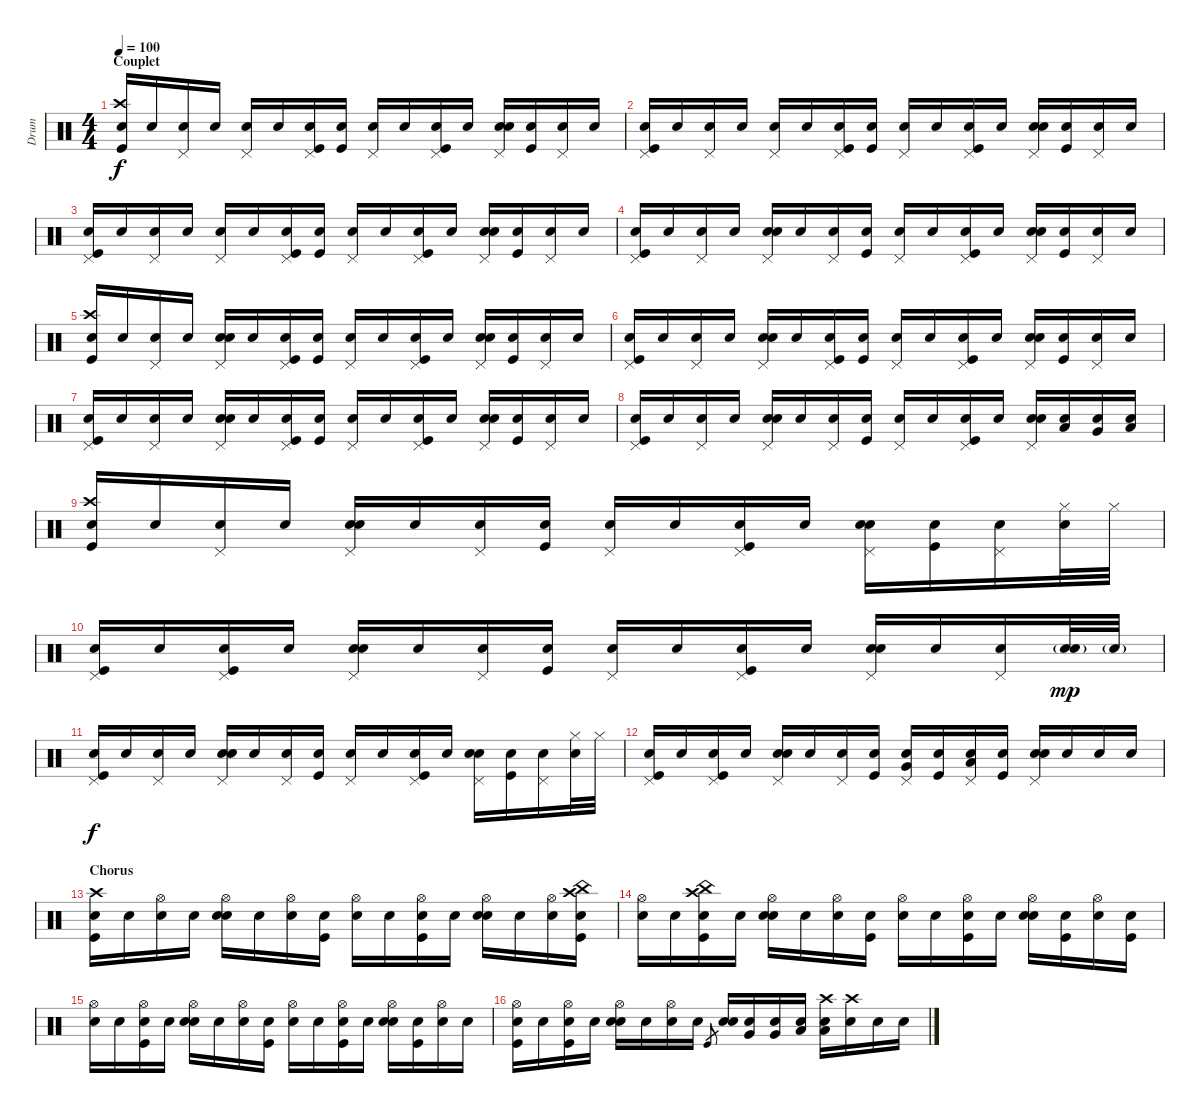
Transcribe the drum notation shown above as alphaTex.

\track ("Drum" "Drum") {instrument percussion}
\staff {score}
\articulation defaults
\ts (4 4)
\section ("" "Couplet")
\tempo 100
\clef neutral
\ks c
("Kick (hit)" "Crash high (hit)" "Snare (hit)"{x}).16{dy f} "Snare (hit)"{x}.16 ("Pedal Hi-Hat (hit)" "Snare (hit)"{x}).16 "Snare (hit)"{x}.16 ("Pedal Hi-Hat (hit)" "Snare (hit)"{x}).16 "Snare (hit)"{x}.16 ("Kick (hit)" "Pedal Hi-Hat (hit)" "Snare (hit)"{x}).16 ("Kick (hit)" "Snare (hit)"{x}).16 ("Pedal Hi-Hat (hit)" "Snare (hit)"{x}).16 "Snare (hit)"{x}.16 ("Kick (hit)" "Pedal Hi-Hat (hit)" "Snare (hit)"{x}).16 "Snare (hit)"{x}.16 ("Snare (hit) 2" "Pedal Hi-Hat (hit)" "Snare (hit)"{x}).16 ("Kick (hit)" "Snare (hit)"{x}).16 ("Pedal Hi-Hat (hit)" "Snare (hit)"{x}).16 "Snare (hit)"{x}.16 |
("Kick (hit)" "Pedal Hi-Hat (hit)" "Snare (hit)"{x}).16 "Snare (hit)"{x}.16 ("Pedal Hi-Hat (hit)" "Snare (hit)"{x}).16 "Snare (hit)"{x}.16 ("Pedal Hi-Hat (hit)" "Snare (hit)"{x}).16 "Snare (hit)"{x}.16 ("Kick (hit)" "Pedal Hi-Hat (hit)" "Snare (hit)"{x}).16 ("Kick (hit)" "Snare (hit)"{x}).16 ("Pedal Hi-Hat (hit)" "Snare (hit)"{x}).16 "Snare (hit)"{x}.16 ("Kick (hit)" "Pedal Hi-Hat (hit)" "Snare (hit)"{x}).16 "Snare (hit)"{x}.16 ("Snare (hit) 2" "Pedal Hi-Hat (hit)" "Snare (hit)"{x}).16 ("Kick (hit)" "Snare (hit)"{x}).16 ("Pedal Hi-Hat (hit)" "Snare (hit)"{x}).16 "Snare (hit)"{x}.16 |
("Kick (hit)" "Pedal Hi-Hat (hit)" "Snare (hit)"{x}).16 "Snare (hit)"{x}.16 ("Pedal Hi-Hat (hit)" "Snare (hit)"{x}).16 "Snare (hit)"{x}.16 ("Pedal Hi-Hat (hit)" "Snare (hit)"{x}).16 "Snare (hit)"{x}.16 ("Kick (hit)" "Pedal Hi-Hat (hit)" "Snare (hit)"{x}).16 ("Kick (hit)" "Snare (hit)"{x}).16 ("Pedal Hi-Hat (hit)" "Snare (hit)"{x}).16 "Snare (hit)"{x}.16 ("Kick (hit)" "Pedal Hi-Hat (hit)" "Snare (hit)"{x}).16 "Snare (hit)"{x}.16 ("Snare (hit) 2" "Pedal Hi-Hat (hit)" "Snare (hit)"{x}).16 ("Kick (hit)" "Snare (hit)"{x}).16 ("Pedal Hi-Hat (hit)" "Snare (hit)"{x}).16 "Snare (hit)"{x}.16 |
("Kick (hit)" "Pedal Hi-Hat (hit)" "Snare (hit)"{x}).16 "Snare (hit)"{x}.16 ("Pedal Hi-Hat (hit)" "Snare (hit)"{x}).16 "Snare (hit)"{x}.16 ("Snare (hit) 2" "Pedal Hi-Hat (hit)" "Snare (hit)"{x}).16 "Snare (hit)"{x}.16 ("Pedal Hi-Hat (hit)" "Snare (hit)"{x}).16 ("Kick (hit)" "Snare (hit)"{x}).16 ("Pedal Hi-Hat (hit)" "Snare (hit)"{x}).16 "Snare (hit)"{x}.16 ("Kick (hit)" "Pedal Hi-Hat (hit)" "Snare (hit)"{x}).16 "Snare (hit)"{x}.16 ("Snare (hit) 2" "Pedal Hi-Hat (hit)" "Snare (hit)"{x}).16 ("Kick (hit)" "Snare (hit)"{x}).16 ("Pedal Hi-Hat (hit)" "Snare (hit)"{x}).16 "Snare (hit)"{x}.16 |
("Kick (hit)" "Crash high (hit)" "Snare (hit)"{x}).16 "Snare (hit)"{x}.16 ("Pedal Hi-Hat (hit)" "Snare (hit)"{x}).16 "Snare (hit)"{x}.16 ("Snare (hit) 2" "Pedal Hi-Hat (hit)" "Snare (hit)"{x}).16 "Snare (hit)"{x}.16 ("Kick (hit)" "Pedal Hi-Hat (hit)" "Snare (hit)"{x}).16 ("Kick (hit)" "Snare (hit)"{x}).16 ("Pedal Hi-Hat (hit)" "Snare (hit)"{x}).16 "Snare (hit)"{x}.16 ("Kick (hit)" "Pedal Hi-Hat (hit)" "Snare (hit)"{x}).16 "Snare (hit)"{x}.16 ("Snare (hit) 2" "Pedal Hi-Hat (hit)" "Snare (hit)"{x}).16 ("Kick (hit)" "Snare (hit)"{x}).16 ("Pedal Hi-Hat (hit)" "Snare (hit)"{x}).16 "Snare (hit)"{x}.16 |
("Kick (hit)" "Pedal Hi-Hat (hit)" "Snare (hit)"{x}).16 "Snare (hit)"{x}.16 ("Pedal Hi-Hat (hit)" "Snare (hit)"{x}).16 "Snare (hit)"{x}.16 ("Snare (hit) 2" "Pedal Hi-Hat (hit)" "Snare (hit)"{x}).16 "Snare (hit)"{x}.16 ("Kick (hit)" "Pedal Hi-Hat (hit)" "Snare (hit)"{x}).16 ("Kick (hit)" "Snare (hit)"{x}).16 ("Pedal Hi-Hat (hit)" "Snare (hit)"{x}).16 "Snare (hit)"{x}.16 ("Kick (hit)" "Pedal Hi-Hat (hit)" "Snare (hit)"{x}).16 "Snare (hit)"{x}.16 ("Snare (hit) 2" "Pedal Hi-Hat (hit)" "Snare (hit)"{x}).16 ("Kick (hit)" "Snare (hit)"{x}).16 ("Pedal Hi-Hat (hit)" "Snare (hit)"{x}).16 "Snare (hit)"{x}.16 |
("Kick (hit)" "Pedal Hi-Hat (hit)" "Snare (hit)"{x}).16 "Snare (hit)"{x}.16 ("Pedal Hi-Hat (hit)" "Snare (hit)"{x}).16 "Snare (hit)"{x}.16 ("Snare (hit) 2" "Pedal Hi-Hat (hit)" "Snare (hit)"{x}).16 "Snare (hit)"{x}.16 ("Kick (hit)" "Pedal Hi-Hat (hit)" "Snare (hit)"{x}).16 ("Kick (hit)" "Snare (hit)"{x}).16 ("Pedal Hi-Hat (hit)" "Snare (hit)"{x}).16 "Snare (hit)"{x}.16 ("Kick (hit)" "Pedal Hi-Hat (hit)" "Snare (hit)"{x}).16 "Snare (hit)"{x}.16 ("Snare (hit) 2" "Pedal Hi-Hat (hit)" "Snare (hit)"{x}).16 ("Kick (hit)" "Snare (hit)"{x}).16 ("Pedal Hi-Hat (hit)" "Snare (hit)"{x}).16 "Snare (hit)"{x}.16 |
("Kick (hit)" "Pedal Hi-Hat (hit)" "Snare (hit)"{x}).16 "Snare (hit)"{x}.16 ("Pedal Hi-Hat (hit)" "Snare (hit)"{x}).16 "Snare (hit)"{x}.16 ("Snare (hit) 2" "Pedal Hi-Hat (hit)" "Snare (hit)"{x}).16 "Snare (hit)"{x}.16 ("Pedal Hi-Hat (hit)" "Snare (hit)"{x}).16 ("Kick (hit)" "Snare (hit)"{x}).16 ("Pedal Hi-Hat (hit)" "Snare (hit)"{x}).16 "Snare (hit)"{x}.16 ("Kick (hit)" "Pedal Hi-Hat (hit)" "Snare (hit)"{x}).16 "Snare (hit)"{x}.16 ("Snare (hit) 2" "Pedal Hi-Hat (hit)" "Snare (hit)"{x}).16 ("Low Tom (hit)" "Snare (hit)"{x}).16 ("Very Low Tom (hit)" "Snare (hit)"{x}).16 ("Low Floor Tom (hit)" "Snare (hit)"{x}).16 |
("Kick (hit)" "Crash high (hit)" "Snare (hit)"{x}).16 "Snare (hit)"{x}.16 ("Pedal Hi-Hat (hit)" "Snare (hit)"{x}).16 "Snare (hit)"{x}.16 ("Snare (hit) 2" "Pedal Hi-Hat (hit)" "Snare (hit)"{x}).16 "Snare (hit)"{x}.16 ("Pedal Hi-Hat (hit)" "Snare (hit)"{x}).16 ("Kick (hit)" "Snare (hit)"{x}).16 ("Pedal Hi-Hat (hit)" "Snare (hit)"{x}).16 "Snare (hit)"{x}.16 ("Kick (hit)" "Pedal Hi-Hat (hit)" "Snare (hit)"{x}).16 "Snare (hit)"{x}.16 ("Snare (hit) 2" "Pedal Hi-Hat (hit)" "Snare (hit)"{x}).16 ("Kick (hit)" "Snare (hit)"{x}).16 ("Pedal Hi-Hat (hit)" "Snare (hit)"{x}).16 ("Hi-Hat (closed)" "Snare (hit)"{x}).32 "Hi-Hat (closed)".32 |
("Kick (hit)" "Pedal Hi-Hat (hit)" "Snare (hit)"{x}).16 "Snare (hit)"{x}.16 ("Kick (hit)" "Pedal Hi-Hat (hit)" "Snare (hit)"{x}).16 "Snare (hit)"{x}.16 ("Snare (hit) 2" "Pedal Hi-Hat (hit)" "Snare (hit)"{x}).16 "Snare (hit)"{x}.16 ("Pedal Hi-Hat (hit)" "Snare (hit)"{x}).16 ("Kick (hit)" "Snare (hit)"{x}).16 ("Pedal Hi-Hat (hit)" "Snare (hit)"{x}).16 "Snare (hit)"{x}.16 ("Kick (hit)" "Pedal Hi-Hat (hit)" "Snare (hit)"{x}).16 "Snare (hit)"{x}.16 ("Snare (hit) 2" "Pedal Hi-Hat (hit)" "Snare (hit)"{x}).16 "Snare (hit)"{x}.16 ("Pedal Hi-Hat (hit)" "Snare (hit)"{x}).16 ("Electric Snare (hit)"{g} "Snare (hit)"{x}).32{dy mp} "Electric Snare (hit)"{g}.32 |
("Kick (hit)" "Pedal Hi-Hat (hit)" "Snare (hit)"{x}).16{dy f} "Snare (hit)"{x}.16 ("Pedal Hi-Hat (hit)" "Snare (hit)"{x}).16 "Snare (hit)"{x}.16 ("Snare (hit) 2" "Pedal Hi-Hat (hit)" "Snare (hit)"{x}).16 "Snare (hit)"{x}.16 ("Pedal Hi-Hat (hit)" "Snare (hit)"{x}).16 ("Kick (hit)" "Snare (hit)"{x}).16 ("Pedal Hi-Hat (hit)" "Snare (hit)"{x}).16 "Snare (hit)"{x}.16 ("Kick (hit)" "Pedal Hi-Hat (hit)" "Snare (hit)"{x}).16 "Snare (hit)"{x}.16 ("Snare (hit) 2" "Pedal Hi-Hat (hit)" "Snare (hit)"{x}).16 ("Kick (hit)" "Snare (hit)"{x}).16 ("Pedal Hi-Hat (hit)" "Snare (hit)"{x}).16 ("Hi-Hat (closed)" "Snare (hit)"{x}).32 "Hi-Hat (closed)".32 |
("Kick (hit)" "Pedal Hi-Hat (hit)" "Snare (hit)"{x}).16 "Snare (hit)"{x}.16 ("Kick (hit)" "Pedal Hi-Hat (hit)" "Snare (hit)"{x}).16 "Snare (hit)"{x}.16 ("Snare (hit) 2" "Pedal Hi-Hat (hit)" "Snare (hit)"{x}).16 "Snare (hit)"{x}.16 ("Pedal Hi-Hat (hit)" "Snare (hit)"{x}).16 ("Kick (hit)" "Snare (hit)"{x}).16 ("Very Low Tom (hit)" "Pedal Hi-Hat (hit)" "Snare (hit)"{x}).16 ("Kick (hit)" "Snare (hit)"{x}).16 ("Low Floor Tom (hit)" "Pedal Hi-Hat (hit)" "Snare (hit)"{x}).16 ("Kick (hit)" "Snare (hit)"{x}).16 ("Snare (hit) 2" "Pedal Hi-Hat (hit)" "Snare (hit)"{x}).16 "Snare (hit)"{x}.16 "Snare (hit)"{x}.16 "Snare (hit)"{x}.16 |
\section ("" "Chorus")
("Kick (hit)" "Crash high (hit)" "Snare (hit)"{x}).16 "Snare (hit)"{x}.16 ("Hi-Hat (open)" "Snare (hit)"{x}).16 "Snare (hit)"{x}.16 ("Snare (hit) 2" "Hi-Hat (open)" "Snare (hit)"{x}).16 "Snare (hit)"{x}.16 ("Hi-Hat (open)" "Snare (hit)"{x}).16 ("Kick (hit)" "Snare (hit)"{x}).16 ("Hi-Hat (open)" "Snare (hit)"{x}).16 "Snare (hit)"{x}.16 ("Kick (hit)" "Hi-Hat (open)" "Snare (hit)"{x}).16 "Snare (hit)"{x}.16 ("Snare (hit) 2" "Hi-Hat (open)" "Snare (hit)"{x}).16 "Snare (hit)"{x}.16 ("Hi-Hat (open)" "Snare (hit)"{x}).16 ("Crash high (hit)" "Kick (hit)" "China (hit)" "Snare (hit)"{x}).16 |
("Hi-Hat (open)" "Snare (hit)"{x}).16 "Snare (hit)"{x}.16 ("Crash high (hit)" "Kick (hit)" "China (hit)" "Snare (hit)"{x}).16 "Snare (hit)"{x}.16 ("Snare (hit) 2" "Hi-Hat (open)" "Snare (hit)"{x}).16 "Snare (hit)"{x}.16 ("Hi-Hat (open)" "Snare (hit)"{x}).16 ("Kick (hit)" "Snare (hit)"{x}).16 ("Hi-Hat (open)" "Snare (hit)"{x}).16 "Snare (hit)"{x}.16 ("Kick (hit)" "Hi-Hat (open)" "Snare (hit)"{x}).16 "Snare (hit)"{x}.16 ("Snare (hit) 2" "Hi-Hat (open)" "Snare (hit)"{x}).16 ("Kick (hit)" "Snare (hit)"{x}).16 ("Hi-Hat (open)" "Snare (hit)"{x}).16 ("Kick (hit)" "Snare (hit)"{x}).16 |
("Hi-Hat (open)" "Snare (hit)"{x}).16 "Snare (hit)"{x}.16 ("Kick (hit)" "Hi-Hat (open)" "Snare (hit)"{x}).16 "Snare (hit)"{x}.16 ("Snare (hit) 2" "Hi-Hat (open)" "Snare (hit)"{x}).16 "Snare (hit)"{x}.16 ("Hi-Hat (open)" "Snare (hit)"{x}).16 ("Kick (hit)" "Snare (hit)"{x}).16 ("Hi-Hat (open)" "Snare (hit)"{x}).16 "Snare (hit)"{x}.16 ("Kick (hit)" "Hi-Hat (open)" "Snare (hit)"{x}).16 "Snare (hit)"{x}.16 ("Snare (hit) 2" "Hi-Hat (open)" "Snare (hit)"{x}).16 ("Kick (hit)" "Snare (hit)"{x}).16 ("Hi-Hat (open)" "Snare (hit)"{x}).16 "Snare (hit)"{x}.16 |
("Kick (hit)" "Hi-Hat (open)" "Snare (hit)"{x}).16 "Snare (hit)"{x}.16 ("Kick (hit)" "Hi-Hat (open)" "Snare (hit)"{x}).16 "Snare (hit)"{x}.16 ("Snare (hit) 2" "Hi-Hat (open)" "Snare (hit)"{x}).16 "Snare (hit)"{x}.16 ("Hi-Hat (open)" "Snare (hit)"{x}).16 "Snare (hit)"{x}.16 "Kick (hit)".8{gr} ("Snare (hit) 2" "Snare (hit)"{x}).16 ("Very Low Tom (hit)" "Snare (hit)"{x}).16 ("Very Low Tom (hit)" "Snare (hit)"{x}).16 ("Low Floor Tom (hit)" "Snare (hit)"{x}).16 ("Low Floor Tom (hit)" "Crash high (hit)" "Snare (hit)"{x}).16 ("Crash high (hit)" "Snare (hit)"{x}).16 "Snare (hit)"{x}.16 "Snare (hit)"{x}.16
